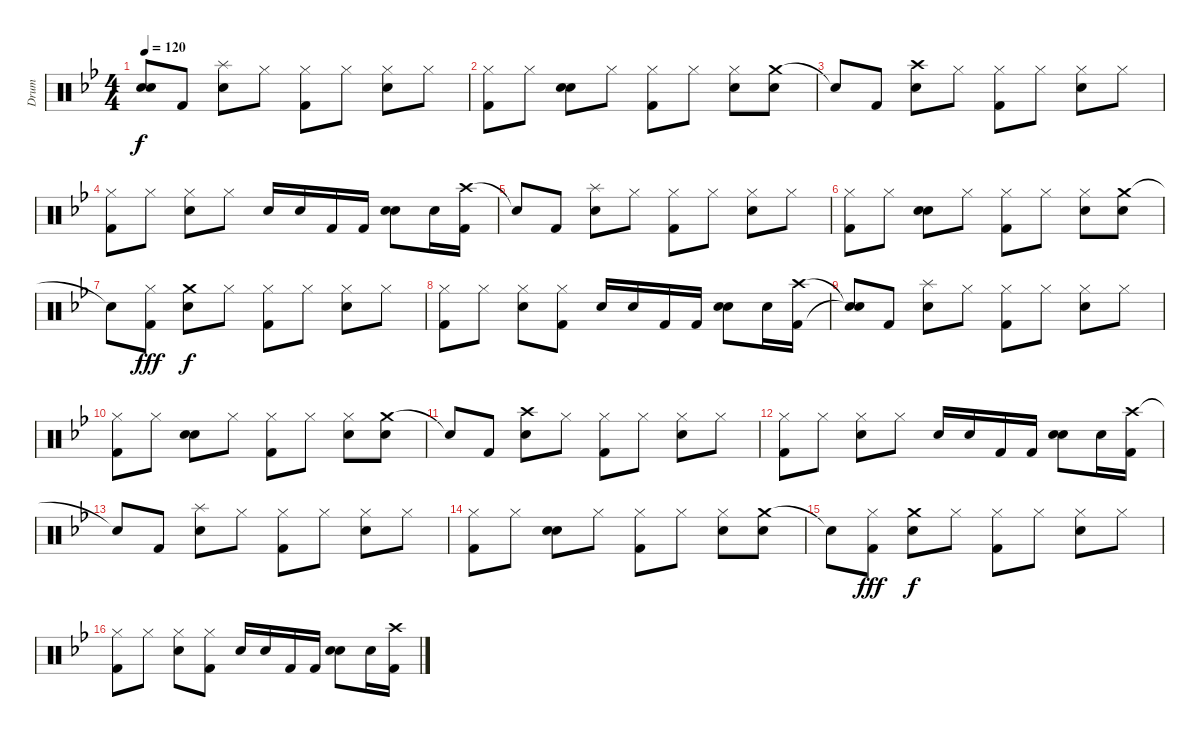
\track ("Drum" "Drum") {instrument percussion}
\staff {score}
\articulation defaults
\ts (4 4)
\tempo 120
\clef neutral
\ks gminor
("Snare (hit)"{t} "Snare (hit)"{t}).8{dy f} "Kick (hit) 2".8 ("Splash (hit)" "Electric Snare (hit)").8 "Hi-Hat (closed)".8 ("Hi-Hat (closed)" "Kick (hit) 2").8 "Hi-Hat (closed)".8 ("Hi-Hat (closed)" "Electric Snare (hit)").8 "Hi-Hat (closed)".8 |
("Hi-Hat (closed)" "Kick (hit) 2").8 "Hi-Hat (closed)".8 ("Snare (hit)" "Electric Snare (hit)").8 "Hi-Hat (closed)".8 ("Hi-Hat (closed)" "Kick (hit) 2").8 "Hi-Hat (closed)".8 ("Hi-Hat (closed)" "Electric Snare (hit)").8 ("Crash medium (hit)" "Electric Snare (hit)").8 |
"Snare (hit)"{t}.8 "Kick (hit) 2".8 ("Crash high (hit)" "Electric Snare (hit)").8 "Hi-Hat (closed)".8 ("Hi-Hat (closed)" "Kick (hit) 2").8 "Hi-Hat (closed)".8 ("Hi-Hat (closed)" "Electric Snare (hit)").8 "Hi-Hat (closed)".8 |
("Hi-Hat (closed)" "Kick (hit) 2").8 "Hi-Hat (closed)".8 ("Hi-Hat (closed)" "Electric Snare (hit)").8 "Hi-Hat (closed)".8 "Electric Snare (hit)".16 "Electric Snare (hit)".16 "Kick (hit) 2".16 "Kick (hit) 2".16 ("Electric Snare (hit)" "Electric Snare (hit)").8{bd 120} "Electric Snare (hit)".16 ("Crash high (hit)" "Kick (hit) 2").16 |
"Snare (hit)"{t}.8 "Kick (hit) 2".8 ("Splash (hit)" "Electric Snare (hit)").8 "Hi-Hat (closed)".8 ("Hi-Hat (closed)" "Kick (hit) 2").8 "Hi-Hat (closed)".8 ("Hi-Hat (closed)" "Electric Snare (hit)").8 "Hi-Hat (closed)".8 |
("Hi-Hat (closed)" "Kick (hit) 2").8 "Hi-Hat (closed)".8 ("Snare (hit)" "Electric Snare (hit)").8 "Hi-Hat (closed)".8 ("Hi-Hat (closed)" "Kick (hit) 2").8 "Hi-Hat (closed)".8 ("Hi-Hat (closed)" "Electric Snare (hit)").8 ("Crash medium (hit)" "Electric Snare (hit)").8 |
"Snare (hit)"{t}.8 ("Hi-Hat (closed)" "Kick (hit) 2").8{dy fff} ("Crash medium (hit)" "Electric Snare (hit)").8{dy f} "Hi-Hat (closed)".8 ("Hi-Hat (closed)" "Kick (hit) 2").8 "Hi-Hat (closed)".8 ("Hi-Hat (closed)" "Electric Snare (hit)").8 "Hi-Hat (closed)".8 |
("Hi-Hat (closed)" "Kick (hit) 2").8 "Hi-Hat (closed)".8 ("Hi-Hat (closed)" "Electric Snare (hit)").8 ("Hi-Hat (closed)" "Kick (hit) 2").8 "Electric Snare (hit)".16 "Electric Snare (hit)".16 "Kick (hit) 2".16 "Kick (hit) 2".16 ("Electric Snare (hit)" "Electric Snare (hit)").8 "Electric Snare (hit)".16 ("Crash high (hit)" "Kick (hit) 2").16 |
("Snare (hit)"{t} "Snare (hit)"{t}).8 "Kick (hit) 2".8 ("Splash (hit)" "Electric Snare (hit)").8 "Hi-Hat (closed)".8 ("Hi-Hat (closed)" "Kick (hit) 2").8 "Hi-Hat (closed)".8 ("Hi-Hat (closed)" "Electric Snare (hit)").8 "Hi-Hat (closed)".8 |
("Hi-Hat (closed)" "Kick (hit) 2").8 "Hi-Hat (closed)".8 ("Snare (hit)" "Electric Snare (hit)").8 "Hi-Hat (closed)".8 ("Hi-Hat (closed)" "Kick (hit) 2").8 "Hi-Hat (closed)".8 ("Hi-Hat (closed)" "Electric Snare (hit)").8 ("Crash medium (hit)" "Electric Snare (hit)").8 |
"Snare (hit)"{t}.8 "Kick (hit) 2".8 ("Crash high (hit)" "Electric Snare (hit)").8 "Hi-Hat (closed)".8 ("Hi-Hat (closed)" "Kick (hit) 2").8 "Hi-Hat (closed)".8 ("Hi-Hat (closed)" "Electric Snare (hit)").8 "Hi-Hat (closed)".8 |
("Hi-Hat (closed)" "Kick (hit) 2").8 "Hi-Hat (closed)".8 ("Hi-Hat (closed)" "Electric Snare (hit)").8 "Hi-Hat (closed)".8 "Electric Snare (hit)".16 "Electric Snare (hit)".16 "Kick (hit) 2".16 "Kick (hit) 2".16 ("Electric Snare (hit)" "Electric Snare (hit)").8{bd 120} "Electric Snare (hit)".16 ("Crash high (hit)" "Kick (hit) 2").16 |
"Snare (hit)"{t}.8 "Kick (hit) 2".8 ("Splash (hit)" "Electric Snare (hit)").8 "Hi-Hat (closed)".8 ("Hi-Hat (closed)" "Kick (hit) 2").8 "Hi-Hat (closed)".8 ("Hi-Hat (closed)" "Electric Snare (hit)").8 "Hi-Hat (closed)".8 |
("Hi-Hat (closed)" "Kick (hit) 2").8 "Hi-Hat (closed)".8 ("Snare (hit)" "Electric Snare (hit)").8 "Hi-Hat (closed)".8 ("Hi-Hat (closed)" "Kick (hit) 2").8 "Hi-Hat (closed)".8 ("Hi-Hat (closed)" "Electric Snare (hit)").8 ("Crash medium (hit)" "Electric Snare (hit)").8 |
"Snare (hit)"{t}.8 ("Hi-Hat (closed)" "Kick (hit) 2").8{dy fff} ("Crash medium (hit)" "Electric Snare (hit)").8{dy f} "Hi-Hat (closed)".8 ("Hi-Hat (closed)" "Kick (hit) 2").8 "Hi-Hat (closed)".8 ("Hi-Hat (closed)" "Electric Snare (hit)").8 "Hi-Hat (closed)".8 |
("Hi-Hat (closed)" "Kick (hit) 2").8 "Hi-Hat (closed)".8 ("Hi-Hat (closed)" "Electric Snare (hit)").8 ("Hi-Hat (closed)" "Kick (hit) 2").8 "Electric Snare (hit)".16 "Electric Snare (hit)".16 "Kick (hit) 2".16 "Kick (hit) 2".16 ("Electric Snare (hit)" "Electric Snare (hit)").8 "Electric Snare (hit)".16 ("Crash high (hit)" "Kick (hit) 2").16
